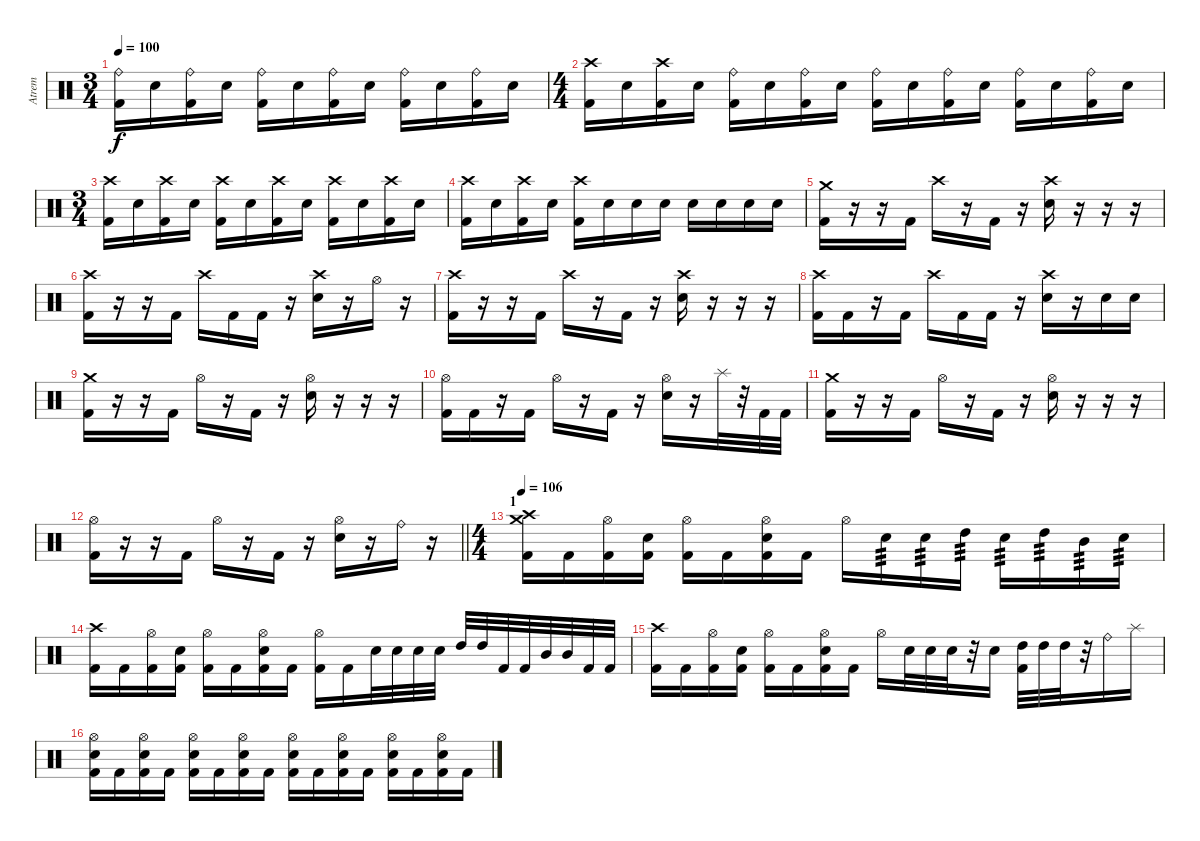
\track ("Atrem" "Atrem") {instrument percussion}
\staff {score}
\articulation defaults
\ts (3 4)
\tempo 100
\clef neutral
\ks c
("Ride (bell)" "Kick (hit) 2").16{dy f} "Electric Snare (hit)".16 ("Ride (bell)" "Kick (hit) 2").16 "Electric Snare (hit)".16 ("Ride (bell)" "Kick (hit) 2").16 "Electric Snare (hit)".16 ("Ride (bell)" "Kick (hit) 2").16 "Electric Snare (hit)".16 ("Ride (bell)" "Kick (hit) 2").16 "Electric Snare (hit)".16 ("Ride (bell)" "Kick (hit) 2").16 "Electric Snare (hit)".16 |
\ts (4 4)
("Crash high (hit)" "Kick (hit) 2").16 "Electric Snare (hit)".16 ("Crash high (hit)" "Kick (hit) 2").16 "Electric Snare (hit)".16 ("Ride (bell)" "Kick (hit) 2").16 "Electric Snare (hit)".16 ("Ride (bell)" "Kick (hit) 2").16 "Electric Snare (hit)".16 ("Ride (bell)" "Kick (hit) 2").16 "Electric Snare (hit)".16 ("Ride (bell)" "Kick (hit) 2").16 "Electric Snare (hit)".16 ("Ride (bell)" "Kick (hit) 2").16 "Electric Snare (hit)".16 ("Ride (bell)" "Kick (hit) 2").16 "Electric Snare (hit)".16 |
\ts (3 4)
("Crash high (hit)" "Kick (hit) 2").16 "Electric Snare (hit)".16 ("Crash high (hit)" "Kick (hit) 2").16 "Electric Snare (hit)".16 ("Crash high (hit)" "Kick (hit) 2").16 "Electric Snare (hit)".16 ("Crash high (hit)" "Kick (hit) 2").16 "Electric Snare (hit)".16 ("Crash high (hit)" "Kick (hit) 2").16 "Electric Snare (hit)".16 ("Crash high (hit)" "Kick (hit) 2").16 "Electric Snare (hit)".16 |
("Crash high (hit)" "Kick (hit) 2").16 "Electric Snare (hit)".16 ("Crash high (hit)" "Kick (hit) 2").16 "Electric Snare (hit)".16 ("Crash high (hit)" "Kick (hit) 2").16 "Electric Snare (hit)".16 "Electric Snare (hit)".16 "Electric Snare (hit)".16 "Electric Snare (hit)".16 "Electric Snare (hit)".16 "Electric Snare (hit)".16 "Electric Snare (hit)".16 |
("Kick (hit) 2" "Crash medium (hit)").16 r.16 r.16 "Kick (hit) 2".16 "Crash high (hit)".16 r.16 "Kick (hit) 2".16 r.16 ("Crash high (hit)" "Electric Snare (hit)").16 r.16 r.16 r.16 |
("Crash high (hit)" "Kick (hit) 2").16 r.16 r.16 "Kick (hit) 2".16 "Crash high (hit)".16 "Kick (hit) 2".16 "Kick (hit) 2".16 r.16 ("Crash high (hit)" "Electric Snare (hit)").16 r.16 "Hi-Hat (open)".16 r.16 |
("Crash high (hit)" "Kick (hit) 2").16 r.16 r.16 "Kick (hit) 2".16 "Crash high (hit)".16 r.16 "Kick (hit) 2".16 r.16 ("Crash high (hit)" "Electric Snare (hit)").16 r.16 r.16 r.16 |
("Crash high (hit)" "Kick (hit) 2").16 "Kick (hit) 2".16 r.16 "Kick (hit) 2".16 "Crash high (hit)".16 "Kick (hit) 2".16 "Kick (hit) 2".16 r.16 ("Crash high (hit)" "Electric Snare (hit)").16 r.16 "Electric Snare (hit)".16 "Electric Snare (hit)".16 |
("Crash medium (hit)" "Kick (hit) 2").16 r.16 r.16 "Kick (hit) 2".16 "Hi-Hat (open)".16 r.16 "Kick (hit) 2".16 r.16 ("Hi-Hat (open)" "Electric Snare (hit)").16 r.16 r.16 r.16 |
("Hi-Hat (open)" "Kick (hit) 2").16 "Kick (hit) 2".16 r.16 "Kick (hit) 2".16 "Hi-Hat (open)".16 r.16 "Kick (hit) 2".16 r.16 ("Hi-Hat (open)" "Electric Snare (hit)").16 r.16 "Splash (hit)".32 r.32 "Kick (hit) 2".32 "Kick (hit) 2".32 |
("Crash medium (hit)" "Kick (hit) 2").16 r.16 r.16 "Kick (hit) 2".16 "Hi-Hat (open)".16 r.16 "Kick (hit) 2".16 r.16 ("Hi-Hat (open)" "Electric Snare (hit)").16 r.16 r.16 r.16 |
\barLineRight lightlight
("Hi-Hat (open)" "Kick (hit) 2").16 r.16 r.16 "Kick (hit) 2".16 "Hi-Hat (open)".16 r.16 "Kick (hit) 2".16 r.16 ("Hi-Hat (open)" "Electric Snare (hit)").16 r.16 "Ride (bell)".16 r.16 |
\ts (4 4)
\section ("" "1")
\tempo 106
("Kick (hit) 2" "Crash high (hit)" "Crash medium (hit)").16 "Kick (hit) 2".16 ("Kick (hit) 2" "Hi-Hat (open)").16 ("Kick (hit) 2" "Electric Snare (hit)").16 ("Kick (hit) 2" "Hi-Hat (open)").16 "Kick (hit) 2".16 ("Kick (hit) 2" "Electric Snare (hit)" "Hi-Hat (open)").16 "Kick (hit) 2".16 "Hi-Hat (open)".16 "Electric Snare (hit)".16{tp 3} "Electric Snare (hit)".16{tp 3} "High Tom (hit)".16{tp 3} "Electric Snare (hit)".16{tp 3} "High Tom (hit)".16{tp 3} "Mid Tom (hit)".16{tp 3} "Electric Snare (hit)".16{tp 3} |
("Kick (hit) 2" "Crash high (hit)").16 "Kick (hit) 2".16 ("Kick (hit) 2" "Hi-Hat (open)").16 ("Kick (hit) 2" "Electric Snare (hit)").16 ("Kick (hit) 2" "Hi-Hat (open)").16 "Kick (hit) 2".16 ("Kick (hit) 2" "Electric Snare (hit)" "Hi-Hat (open)").16 "Kick (hit) 2".16 ("Kick (hit) 2" "Hi-Hat (open)").16 "Kick (hit) 2".16 "Electric Snare (hit)".32 "Electric Snare (hit)".32 "Electric Snare (hit)".32 "Electric Snare (hit)".32 "High Tom (hit)".32 "High Tom (hit)".32 "Kick (hit) 2".32 "Kick (hit) 2".32 "Mid Tom (hit)".32 "Mid Tom (hit)".32 "Kick (hit) 2".32 "Kick (hit) 2".32 |
("Kick (hit) 2" "Crash high (hit)").16 "Kick (hit) 2".16 ("Kick (hit) 2" "Hi-Hat (open)").16 ("Kick (hit) 2" "Electric Snare (hit)").16 ("Kick (hit) 2" "Hi-Hat (open)").16 "Kick (hit) 2".16 ("Kick (hit) 2" "Electric Snare (hit)" "Hi-Hat (open)").16 "Kick (hit) 2".16 "Hi-Hat (open)".16 "Electric Snare (hit)".32 "Electric Snare (hit)".32 "Electric Snare (hit)".32 r.32 "Electric Snare (hit)".16 ("High Tom (hit)" "Kick (hit) 2").32 "High Tom (hit)".32 "High Tom (hit)".32 r.32 "Ride (bell)".16 "Splash (hit)".16 |
("Hi-Hat (open)" "Kick (hit) 2" "Electric Snare (hit)").16 "Kick (hit) 2".16 ("Kick (hit) 2" "Electric Snare (hit)" "Hi-Hat (open)").16 "Kick (hit) 2".16 ("Kick (hit) 2" "Electric Snare (hit)" "Hi-Hat (open)").16 "Kick (hit) 2".16 ("Kick (hit) 2" "Electric Snare (hit)" "Hi-Hat (open)").16 "Kick (hit) 2".16 ("Hi-Hat (open)" "Kick (hit) 2" "Electric Snare (hit)").16 "Kick (hit) 2".16 ("Kick (hit) 2" "Electric Snare (hit)" "Hi-Hat (open)").16 "Kick (hit) 2".16 ("Hi-Hat (open)" "Kick (hit) 2" "Electric Snare (hit)").16 "Kick (hit) 2".16 ("Kick (hit) 2" "Electric Snare (hit)" "Hi-Hat (open)").16 "Kick (hit) 2".16
